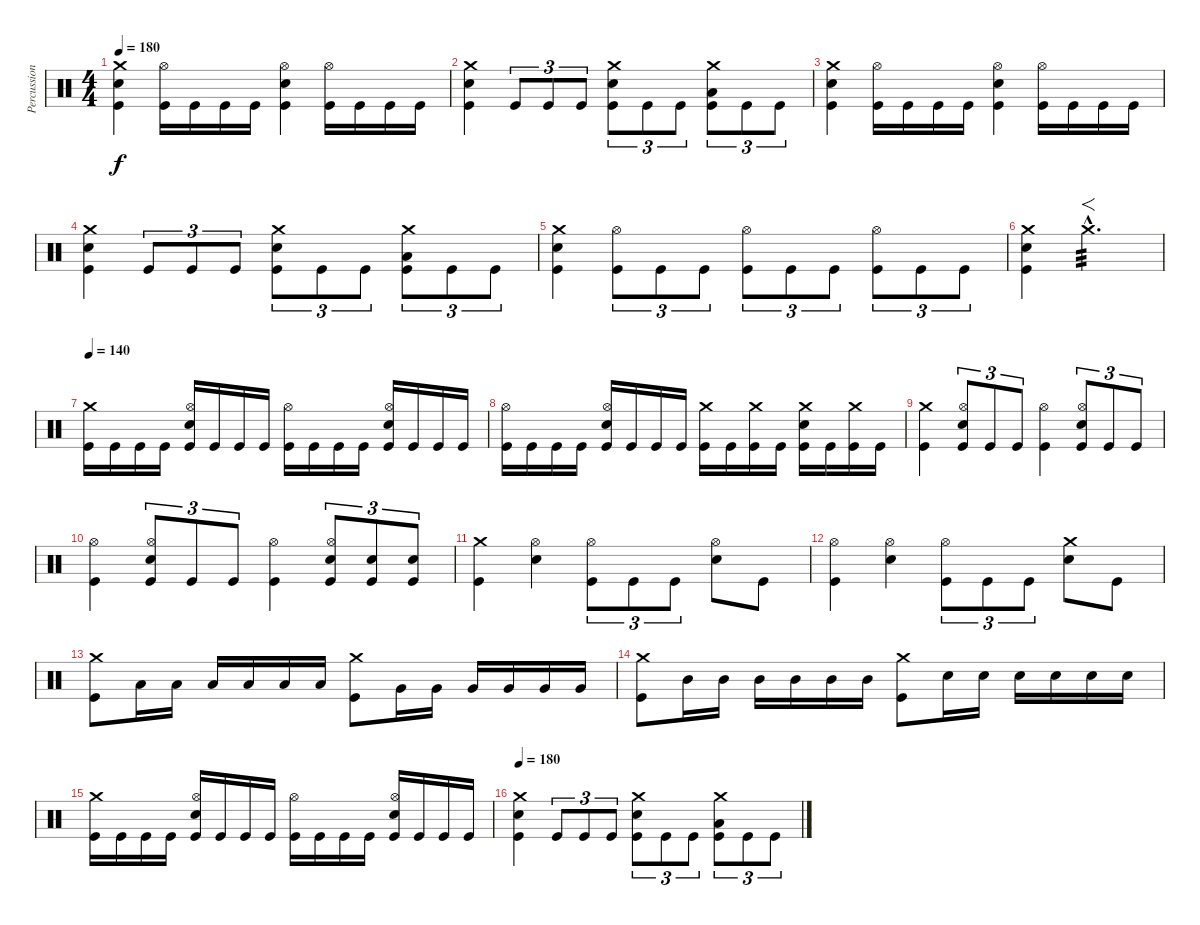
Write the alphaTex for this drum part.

\track ("Percussion" "Percussion") {instrument percussion}
\staff {score}
\articulation defaults
\ts (4 4)
\tempo 180
\clef neutral
\ks c
("Crash medium (hit)" "Snare (hit) 2" "Kick (hit)").4{dy f} ("Hi-Hat (open)" "Kick (hit)").16 "Kick (hit)".16 "Kick (hit)".16 "Kick (hit)".16 ("Hi-Hat (open)" "Snare (hit) 2" "Kick (hit)").4 ("Hi-Hat (open)" "Kick (hit)").16 "Kick (hit)".16 "Kick (hit)".16 "Kick (hit)".16 |
("Crash medium (hit)" "Electric Snare (hit)" "Kick (hit)").4 "Kick (hit)".8{tu (3 2)} "Kick (hit)".8{tu (3 2)} "Kick (hit)".8{tu (3 2)} ("Crash medium (hit)" "Electric Snare (hit)" "Kick (hit)").8{tu (3 2)} "Kick (hit)".8{tu (3 2)} "Kick (hit)".8{tu (3 2)} ("Crash medium (hit)" "Low Tom (hit)" "Kick (hit)").8{tu (3 2)} "Kick (hit)".8{tu (3 2)} "Kick (hit)".8{tu (3 2)} |
("Crash medium (hit)" "Snare (hit) 2" "Kick (hit)").4 ("Hi-Hat (open)" "Kick (hit)").16 "Kick (hit)".16 "Kick (hit)".16 "Kick (hit)".16 ("Hi-Hat (open)" "Snare (hit) 2" "Kick (hit)").4 ("Hi-Hat (open)" "Kick (hit)").16 "Kick (hit)".16 "Kick (hit)".16 "Kick (hit)".16 |
("Crash medium (hit)" "Electric Snare (hit)" "Kick (hit)").4 "Kick (hit)".8{tu (3 2)} "Kick (hit)".8{tu (3 2)} "Kick (hit)".8{tu (3 2)} ("Crash medium (hit)" "Electric Snare (hit)" "Kick (hit)").8{tu (3 2)} "Kick (hit)".8{tu (3 2)} "Kick (hit)".8{tu (3 2)} ("Crash medium (hit)" "Low Tom (hit)" "Kick (hit)").8{tu (3 2)} "Kick (hit)".8{tu (3 2)} "Kick (hit)".8{tu (3 2)} |
("Crash medium (hit)" "Electric Snare (hit)" "Kick (hit)").4 ("Hi-Hat (open)" "Kick (hit)").8{tu (3 2)} "Kick (hit)".8{tu (3 2)} "Kick (hit)".8{tu (3 2)} ("Hi-Hat (open)" "Kick (hit)").8{tu (3 2)} "Kick (hit)".8{tu (3 2)} "Kick (hit)".8{tu (3 2)} ("Hi-Hat (open)" "Kick (hit)").8{tu (3 2)} "Kick (hit)".8{tu (3 2)} "Kick (hit)".8{tu (3 2)} |
("Crash medium (hit)" "Electric Snare (hit)" "Kick (hit)").4 "Crash medium (hit)"{hac}.2{f d tp 3} |
\tempo 140
("Crash medium (hit)" "Kick (hit)").16 "Kick (hit)".16 "Kick (hit)".16 "Kick (hit)".16 ("Hi-Hat (open)" "Electric Snare (hit)" "Kick (hit)").16 "Kick (hit)".16 "Kick (hit)".16 "Kick (hit)".16 ("Hi-Hat (open)" "Kick (hit)").16 "Kick (hit)".16 "Kick (hit)".16 "Kick (hit)".16 ("Hi-Hat (open)" "Electric Snare (hit)" "Kick (hit)").16 "Kick (hit)".16 "Kick (hit)".16 "Kick (hit)".16 |
("Hi-Hat (open)" "Kick (hit)").16 "Kick (hit)".16 "Kick (hit)".16 "Kick (hit)".16 ("Hi-Hat (open)" "Electric Snare (hit)" "Kick (hit)").16 "Kick (hit)".16 "Kick (hit)".16 "Kick (hit)".16 ("Crash medium (hit)" "Kick (hit)").16 "Kick (hit)".16 ("Crash medium (hit)" "Kick (hit)").16 "Kick (hit)".16 ("Crash medium (hit)" "Electric Snare (hit)" "Kick (hit)").16 "Kick (hit)".16 ("Crash medium (hit)" "Kick (hit)").16 "Kick (hit)".16 |
("Crash medium (hit)" "Kick (hit)").4 ("Hi-Hat (open)" "Electric Snare (hit)" "Kick (hit)").8{tu (3 2)} "Kick (hit)".8{tu (3 2)} "Kick (hit)".8{tu (3 2)} ("Hi-Hat (open)" "Kick (hit)").4 ("Hi-Hat (open)" "Electric Snare (hit)" "Kick (hit)").8{tu (3 2)} "Kick (hit)".8{tu (3 2)} "Kick (hit)".8{tu (3 2)} |
("Hi-Hat (open)" "Kick (hit)").4 ("Hi-Hat (open)" "Electric Snare (hit)" "Kick (hit)").8{tu (3 2)} "Kick (hit)".8{tu (3 2)} "Kick (hit)".8{tu (3 2)} ("Hi-Hat (open)" "Kick (hit)").4 ("Hi-Hat (open)" "Electric Snare (hit)" "Kick (hit)").8{tu (3 2)} ("Electric Snare (hit)" "Kick (hit)").8{tu (3 2)} ("Electric Snare (hit)" "Kick (hit)").8{tu (3 2)} |
("Crash medium (hit)" "Kick (hit)").4 ("Hi-Hat (open)" "Electric Snare (hit)").4 ("Hi-Hat (open)" "Kick (hit)").8{tu (3 2)} "Kick (hit)".8{tu (3 2)} "Kick (hit)".8{tu (3 2)} ("Hi-Hat (open)" "Electric Snare (hit)").8 "Kick (hit)".8 |
("Hi-Hat (open)" "Kick (hit)").4 ("Hi-Hat (open)" "Electric Snare (hit)").4 ("Hi-Hat (open)" "Kick (hit)").8{tu (3 2)} "Kick (hit)".8{tu (3 2)} "Kick (hit)".8{tu (3 2)} ("Crash medium (hit)" "Electric Snare (hit)").8 "Kick (hit)".8 |
("Crash medium (hit)" "Kick (hit)").8 "Low Tom (hit)".16 "Low Tom (hit)".16 "Low Tom (hit)".16 "Low Tom (hit)".16 "Low Tom (hit)".16 "Low Tom (hit)".16 ("Crash medium (hit)" "Kick (hit)").8 "Very Low Tom (hit)".16 "Very Low Tom (hit)".16 "Very Low Tom (hit)".16 "Very Low Tom (hit)".16 "Very Low Tom (hit)".16 "Very Low Tom (hit)".16 |
("Crash medium (hit)" "Kick (hit)").8 "Mid Tom (hit)".16 "Mid Tom (hit)".16 "Mid Tom (hit)".16 "Mid Tom (hit)".16 "Mid Tom (hit)".16 "Mid Tom (hit)".16 ("Crash medium (hit)" "Kick (hit)").8 "Electric Snare (hit)".16 "Electric Snare (hit)".16 "Electric Snare (hit)".16 "Electric Snare (hit)".16 "Electric Snare (hit)".16 "Electric Snare (hit)".16 |
("Crash medium (hit)" "Kick (hit)").16 "Kick (hit)".16 "Kick (hit)".16 "Kick (hit)".16 ("Hi-Hat (open)" "Electric Snare (hit)" "Kick (hit)").16 "Kick (hit)".16 "Kick (hit)".16 "Kick (hit)".16 ("Hi-Hat (open)" "Kick (hit)").16 "Kick (hit)".16 "Kick (hit)".16 "Kick (hit)".16 ("Hi-Hat (open)" "Electric Snare (hit)" "Kick (hit)").16 "Kick (hit)".16 "Kick (hit)".16 "Kick (hit)".16 |
\tempo 180
("Crash medium (hit)" "Electric Snare (hit)" "Kick (hit)").4 "Kick (hit)".8{tu (3 2)} "Kick (hit)".8{tu (3 2)} "Kick (hit)".8{tu (3 2)} ("Crash medium (hit)" "Electric Snare (hit)" "Kick (hit)").8{tu (3 2)} "Kick (hit)".8{tu (3 2)} "Kick (hit)".8{tu (3 2)} ("Crash medium (hit)" "Low Tom (hit)" "Kick (hit)").8{tu (3 2)} "Kick (hit)".8{tu (3 2)} "Kick (hit)".8{tu (3 2)}
